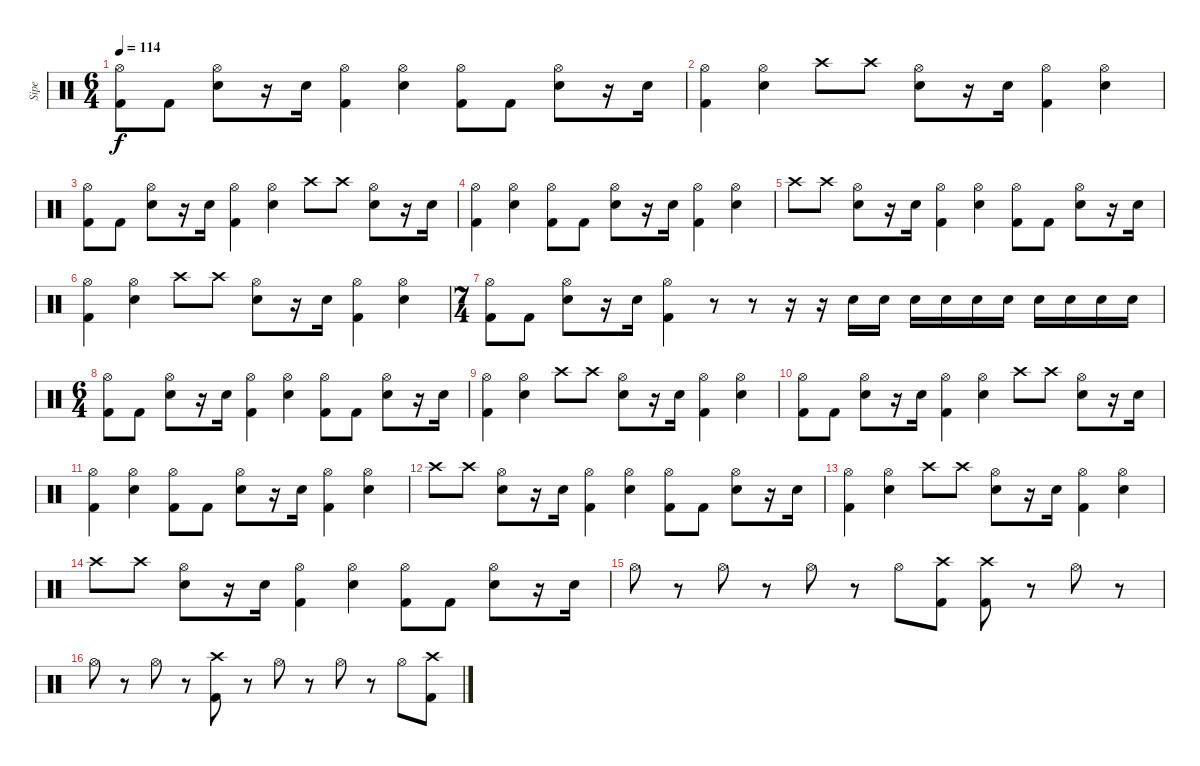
\track ("Sipe" "Sipe") {instrument percussion}
\staff {score}
\articulation defaults
\ts (6 4)
\tempo 114
\clef neutral
\ks c
("Hi-Hat (open)" "Kick (hit) 2").8{dy f} "Kick (hit) 2".8 ("Hi-Hat (open)" "Snare (hit) 2").8 r.16 "Snare (hit) 2".16 ("Hi-Hat (open)" "Kick (hit) 2").4 ("Hi-Hat (open)" "Snare (hit) 2").4 ("Hi-Hat (open)" "Kick (hit) 2").8 "Kick (hit) 2".8 ("Hi-Hat (open)" "Snare (hit) 2").8 r.16 "Snare (hit) 2".16 |
("Hi-Hat (open)" "Kick (hit) 2").4 ("Hi-Hat (open)" "Snare (hit) 2").4 "Crash high (hit)".8 "Crash high (hit)".8 ("Hi-Hat (open)" "Snare (hit) 2").8 r.16 "Snare (hit) 2".16 ("Hi-Hat (open)" "Kick (hit) 2").4 ("Hi-Hat (open)" "Snare (hit) 2").4 |
("Hi-Hat (open)" "Kick (hit) 2").8 "Kick (hit) 2".8 ("Hi-Hat (open)" "Snare (hit) 2").8 r.16 "Snare (hit) 2".16 ("Hi-Hat (open)" "Kick (hit) 2").4 ("Hi-Hat (open)" "Snare (hit) 2").4 "Crash high (hit)".8 "Crash high (hit)".8 ("Hi-Hat (open)" "Snare (hit) 2").8 r.16 "Snare (hit) 2".16 |
("Hi-Hat (open)" "Kick (hit) 2").4 ("Hi-Hat (open)" "Snare (hit) 2").4 ("Hi-Hat (open)" "Kick (hit) 2").8 "Kick (hit) 2".8 ("Hi-Hat (open)" "Snare (hit) 2").8 r.16 "Snare (hit) 2".16 ("Hi-Hat (open)" "Kick (hit) 2").4 ("Hi-Hat (open)" "Snare (hit) 2").4 |
"Crash high (hit)".8 "Crash high (hit)".8 ("Hi-Hat (open)" "Snare (hit) 2").8 r.16 "Snare (hit) 2".16 ("Hi-Hat (open)" "Kick (hit) 2").4 ("Hi-Hat (open)" "Snare (hit) 2").4 ("Hi-Hat (open)" "Kick (hit) 2").8 "Kick (hit) 2".8 ("Hi-Hat (open)" "Snare (hit) 2").8 r.16 "Snare (hit) 2".16 |
("Hi-Hat (open)" "Kick (hit) 2").4 ("Hi-Hat (open)" "Snare (hit) 2").4 "Crash high (hit)".8 "Crash high (hit)".8 ("Hi-Hat (open)" "Snare (hit) 2").8 r.16 "Snare (hit) 2".16 ("Hi-Hat (open)" "Kick (hit) 2").4 ("Hi-Hat (open)" "Snare (hit) 2").4 |
\ts (7 4)
("Hi-Hat (open)" "Kick (hit) 2").8 "Kick (hit) 2".8 ("Hi-Hat (open)" "Snare (hit) 2").8 r.16 "Snare (hit) 2".16 ("Hi-Hat (open)" "Kick (hit) 2").4 r.8 r.8 r.16 r.16 "Snare (hit) 2".16 "Snare (hit) 2".16 "Snare (hit) 2".16 "Snare (hit) 2".16 "Snare (hit) 2".16 "Snare (hit) 2".16 "Snare (hit) 2".16 "Snare (hit) 2".16 "Snare (hit) 2".16 "Snare (hit) 2".16 |
\ts (6 4)
("Hi-Hat (open)" "Kick (hit) 2").8 "Kick (hit) 2".8 ("Hi-Hat (open)" "Snare (hit) 2").8 r.16 "Snare (hit) 2".16 ("Hi-Hat (open)" "Kick (hit) 2").4 ("Hi-Hat (open)" "Snare (hit) 2").4 ("Hi-Hat (open)" "Kick (hit) 2").8 "Kick (hit) 2".8 ("Hi-Hat (open)" "Snare (hit) 2").8 r.16 "Snare (hit) 2".16 |
("Hi-Hat (open)" "Kick (hit) 2").4 ("Hi-Hat (open)" "Snare (hit) 2").4 "Crash high (hit)".8 "Crash high (hit)".8 ("Hi-Hat (open)" "Snare (hit) 2").8 r.16 "Snare (hit) 2".16 ("Hi-Hat (open)" "Kick (hit) 2").4 ("Hi-Hat (open)" "Snare (hit) 2").4 |
("Hi-Hat (open)" "Kick (hit) 2").8 "Kick (hit) 2".8 ("Hi-Hat (open)" "Snare (hit) 2").8 r.16 "Snare (hit) 2".16 ("Hi-Hat (open)" "Kick (hit) 2").4 ("Hi-Hat (open)" "Snare (hit) 2").4 "Crash high (hit)".8 "Crash high (hit)".8 ("Hi-Hat (open)" "Snare (hit) 2").8 r.16 "Snare (hit) 2".16 |
("Hi-Hat (open)" "Kick (hit) 2").4 ("Hi-Hat (open)" "Snare (hit) 2").4 ("Hi-Hat (open)" "Kick (hit) 2").8 "Kick (hit) 2".8 ("Hi-Hat (open)" "Snare (hit) 2").8 r.16 "Snare (hit) 2".16 ("Hi-Hat (open)" "Kick (hit) 2").4 ("Hi-Hat (open)" "Snare (hit) 2").4 |
"Crash high (hit)".8 "Crash high (hit)".8 ("Hi-Hat (open)" "Snare (hit) 2").8 r.16 "Snare (hit) 2".16 ("Hi-Hat (open)" "Kick (hit) 2").4 ("Hi-Hat (open)" "Snare (hit) 2").4 ("Hi-Hat (open)" "Kick (hit) 2").8 "Kick (hit) 2".8 ("Hi-Hat (open)" "Snare (hit) 2").8 r.16 "Snare (hit) 2".16 |
("Hi-Hat (open)" "Kick (hit) 2").4 ("Hi-Hat (open)" "Snare (hit) 2").4 "Crash high (hit)".8 "Crash high (hit)".8 ("Hi-Hat (open)" "Snare (hit) 2").8 r.16 "Snare (hit) 2".16 ("Hi-Hat (open)" "Kick (hit) 2").4 ("Hi-Hat (open)" "Snare (hit) 2").4 |
"Crash high (hit)".8 "Crash high (hit)".8 ("Hi-Hat (open)" "Snare (hit) 2").8 r.16 "Snare (hit) 2".16 ("Hi-Hat (open)" "Kick (hit) 2").4 ("Hi-Hat (open)" "Snare (hit) 2").4 ("Hi-Hat (open)" "Kick (hit) 2").8 "Kick (hit) 2".8 ("Hi-Hat (open)" "Snare (hit) 2").8 r.16 "Snare (hit) 2".16 |
"Hi-Hat (open)".8 r.8 "Hi-Hat (open)".8 r.8 "Hi-Hat (open)".8 r.8 "Hi-Hat (open)".8 ("Crash high (hit)" "Kick (hit) 2").8 ("Crash high (hit)" "Kick (hit) 2").8 r.8 "Hi-Hat (open)".8 r.8 |
"Hi-Hat (open)".8 r.8 "Hi-Hat (open)".8 r.8 ("Crash high (hit)" "Kick (hit) 2").8 r.8 "Hi-Hat (open)".8 r.8 "Hi-Hat (open)".8 r.8 "Hi-Hat (open)".8 ("Crash high (hit)" "Kick (hit) 2").8
